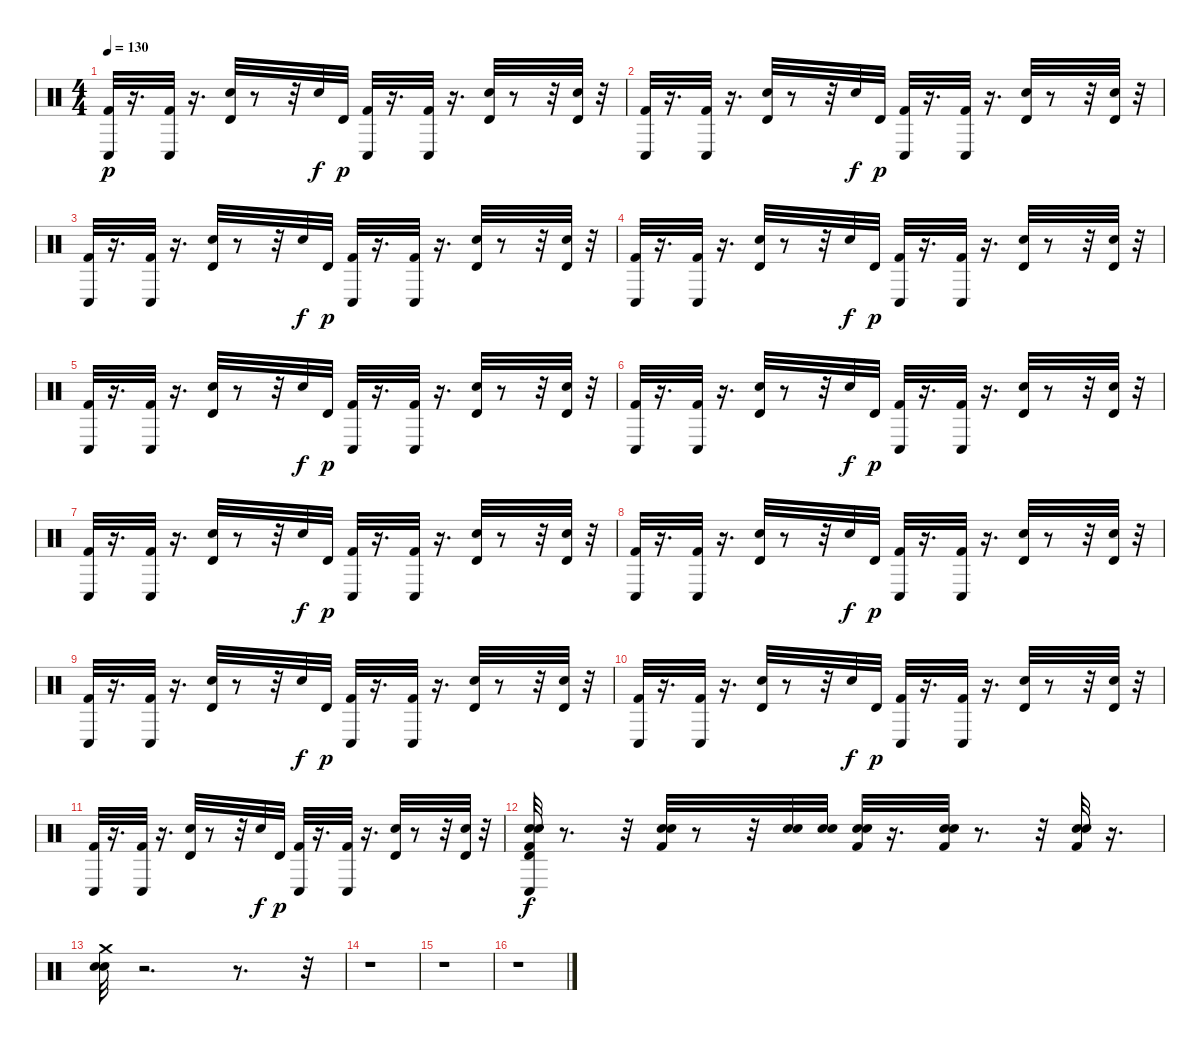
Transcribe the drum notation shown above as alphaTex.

\track "" {instrument percussion}
\staff {score}
\articulation defaults
\ts (4 4)
\tempo 130
\clef neutral
\ks c
("Kick (hit) 2" "Conga low (hit)").32{dy p} r.16{d} ("Kick (hit) 2" "Conga low (hit)").32 r.16{d} ("Snare (hit) 2" "Timbale high (hit)").32 r.8 r.32 "Snare (hit) 2".32{dy f} "Timbale high (hit)".32{dy p} ("Kick (hit) 2" "Conga low (hit)").32 r.16{d} ("Kick (hit) 2" "Conga low (hit)").32 r.16{d} ("Snare (hit) 2" "Timbale high (hit)").32 r.8 r.32 ("Snare (hit) 2" "Timbale high (hit)").32 r.32 |
("Kick (hit) 2" "Conga low (hit)").32 r.16{d} ("Kick (hit) 2" "Conga low (hit)").32 r.16{d} ("Snare (hit) 2" "Timbale high (hit)").32 r.8 r.32 "Snare (hit) 2".32{dy f} "Timbale high (hit)".32{dy p} ("Kick (hit) 2" "Conga low (hit)").32 r.16{d} ("Kick (hit) 2" "Conga low (hit)").32 r.16{d} ("Snare (hit) 2" "Timbale high (hit)").32 r.8 r.32 ("Snare (hit) 2" "Timbale high (hit)").32 r.32 |
("Kick (hit) 2" "Conga low (hit)").32 r.16{d} ("Kick (hit) 2" "Conga low (hit)").32 r.16{d} ("Snare (hit) 2" "Timbale high (hit)").32 r.8 r.32 "Snare (hit) 2".32{dy f} "Timbale high (hit)".32{dy p} ("Kick (hit) 2" "Conga low (hit)").32 r.16{d} ("Kick (hit) 2" "Conga low (hit)").32 r.16{d} ("Snare (hit) 2" "Timbale high (hit)").32 r.8 r.32 ("Snare (hit) 2" "Timbale high (hit)").32 r.32 |
("Kick (hit) 2" "Conga low (hit)").32 r.16{d} ("Kick (hit) 2" "Conga low (hit)").32 r.16{d} ("Snare (hit) 2" "Timbale high (hit)").32 r.8 r.32 "Snare (hit) 2".32{dy f} "Timbale high (hit)".32{dy p} ("Kick (hit) 2" "Conga low (hit)").32 r.16{d} ("Kick (hit) 2" "Conga low (hit)").32 r.16{d} ("Snare (hit) 2" "Timbale high (hit)").32 r.8 r.32 ("Snare (hit) 2" "Timbale high (hit)").32 r.32 |
("Kick (hit) 2" "Conga low (hit)").32 r.16{d} ("Kick (hit) 2" "Conga low (hit)").32 r.16{d} ("Snare (hit) 2" "Timbale high (hit)").32 r.8 r.32 "Snare (hit) 2".32{dy f} "Timbale high (hit)".32{dy p} ("Kick (hit) 2" "Conga low (hit)").32 r.16{d} ("Kick (hit) 2" "Conga low (hit)").32 r.16{d} ("Snare (hit) 2" "Timbale high (hit)").32 r.8 r.32 ("Snare (hit) 2" "Timbale high (hit)").32 r.32 |
("Kick (hit) 2" "Conga low (hit)").32 r.16{d} ("Kick (hit) 2" "Conga low (hit)").32 r.16{d} ("Snare (hit) 2" "Timbale high (hit)").32 r.8 r.32 "Snare (hit) 2".32{dy f} "Timbale high (hit)".32{dy p} ("Kick (hit) 2" "Conga low (hit)").32 r.16{d} ("Kick (hit) 2" "Conga low (hit)").32 r.16{d} ("Snare (hit) 2" "Timbale high (hit)").32 r.8 r.32 ("Snare (hit) 2" "Timbale high (hit)").32 r.32 |
("Kick (hit) 2" "Conga low (hit)").32 r.16{d} ("Kick (hit) 2" "Conga low (hit)").32 r.16{d} ("Snare (hit) 2" "Timbale high (hit)").32 r.8 r.32 "Snare (hit) 2".32{dy f} "Timbale high (hit)".32{dy p} ("Kick (hit) 2" "Conga low (hit)").32 r.16{d} ("Kick (hit) 2" "Conga low (hit)").32 r.16{d} ("Snare (hit) 2" "Timbale high (hit)").32 r.8 r.32 ("Snare (hit) 2" "Timbale high (hit)").32 r.32 |
("Kick (hit) 2" "Conga low (hit)").32 r.16{d} ("Kick (hit) 2" "Conga low (hit)").32 r.16{d} ("Snare (hit) 2" "Timbale high (hit)").32 r.8 r.32 "Snare (hit) 2".32{dy f} "Timbale high (hit)".32{dy p} ("Kick (hit) 2" "Conga low (hit)").32 r.16{d} ("Kick (hit) 2" "Conga low (hit)").32 r.16{d} ("Snare (hit) 2" "Timbale high (hit)").32 r.8 r.32 ("Snare (hit) 2" "Timbale high (hit)").32 r.32 |
("Kick (hit) 2" "Conga low (hit)").32 r.16{d} ("Kick (hit) 2" "Conga low (hit)").32 r.16{d} ("Snare (hit) 2" "Timbale high (hit)").32 r.8 r.32 "Snare (hit) 2".32{dy f} "Timbale high (hit)".32{dy p} ("Kick (hit) 2" "Conga low (hit)").32 r.16{d} ("Kick (hit) 2" "Conga low (hit)").32 r.16{d} ("Snare (hit) 2" "Timbale high (hit)").32 r.8 r.32 ("Snare (hit) 2" "Timbale high (hit)").32 r.32 |
("Kick (hit) 2" "Conga low (hit)").32 r.16{d} ("Kick (hit) 2" "Conga low (hit)").32 r.16{d} ("Snare (hit) 2" "Timbale high (hit)").32 r.8 r.32 "Snare (hit) 2".32{dy f} "Timbale high (hit)".32{dy p} ("Kick (hit) 2" "Conga low (hit)").32 r.16{d} ("Kick (hit) 2" "Conga low (hit)").32 r.16{d} ("Snare (hit) 2" "Timbale high (hit)").32 r.8 r.32 ("Snare (hit) 2" "Timbale high (hit)").32 r.32 |
("Kick (hit) 2" "Conga low (hit)").32 r.16{d} ("Kick (hit) 2" "Conga low (hit)").32 r.16{d} ("Snare (hit) 2" "Timbale high (hit)").32 r.8 r.32 "Snare (hit) 2".32{dy f} "Timbale high (hit)".32{dy p} ("Kick (hit) 2" "Conga low (hit)").32 r.16{d} ("Kick (hit) 2" "Conga low (hit)").32 r.16{d} ("Snare (hit) 2" "Timbale high (hit)").32 r.8 r.32 ("Snare (hit) 2" "Timbale high (hit)").32 r.32 |
("Timbale high (hit)" "Conga low (hit)" "Electric Snare (hit)" "Snare (hit) 2" "Kick (hit) 2").32{dy f} r.8{d} r.32 ("Electric Snare (hit)" "Snare (hit) 2" "Kick (hit) 2").32 r.8 r.32 ("Snare (hit) 2" "Electric Snare (hit)").32 ("Electric Snare (hit)" "Snare (hit) 2").32 ("Electric Snare (hit)" "Snare (hit) 2" "Kick (hit) 2").32 r.16{d} ("Electric Snare (hit)" "Snare (hit) 2" "Kick (hit) 2").32 r.8{d} r.32 ("Snare (hit) 2" "Electric Snare (hit)" "Kick (hit) 2").32 r.16{d} |
("Electric Snare (hit)" "Snare (hit) 2" "Crash medium (hit)").32 r.2{d} r.8{d} r.32 |
r.1 |
r.1 |
r.1
